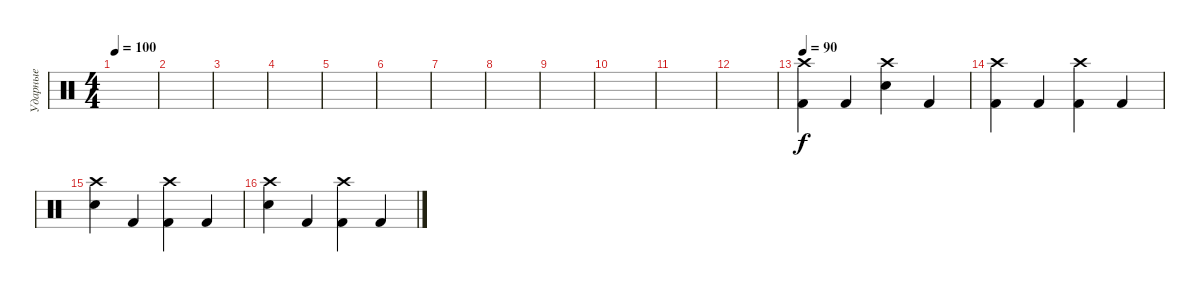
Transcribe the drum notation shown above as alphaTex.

\track ("Ударные" "Ударные") {instrument percussion}
\staff {score}
\articulation defaults
\ts (4 4)
\tempo 100
\clef neutral
\ks c
|
|
|
|
|
|
|
|
|
|
|
|
\tempo 90
("Crash high (hit)" "Kick (hit) 2").4 "Kick (hit) 2".4 ("Crash high (hit)" "Electric Snare (hit)").4 "Kick (hit) 2".4 |
("Crash high (hit)" "Kick (hit) 2").4 "Kick (hit) 2".4 ("Crash high (hit)" "Kick (hit) 2").4 "Kick (hit) 2".4 |
("Crash high (hit)" "Electric Snare (hit)").4 "Kick (hit) 2".4 ("Crash high (hit)" "Kick (hit) 2").4 "Kick (hit) 2".4 |
("Crash high (hit)" "Electric Snare (hit)").4 "Kick (hit) 2".4 ("Crash high (hit)" "Kick (hit) 2").4 "Kick (hit) 2".4
